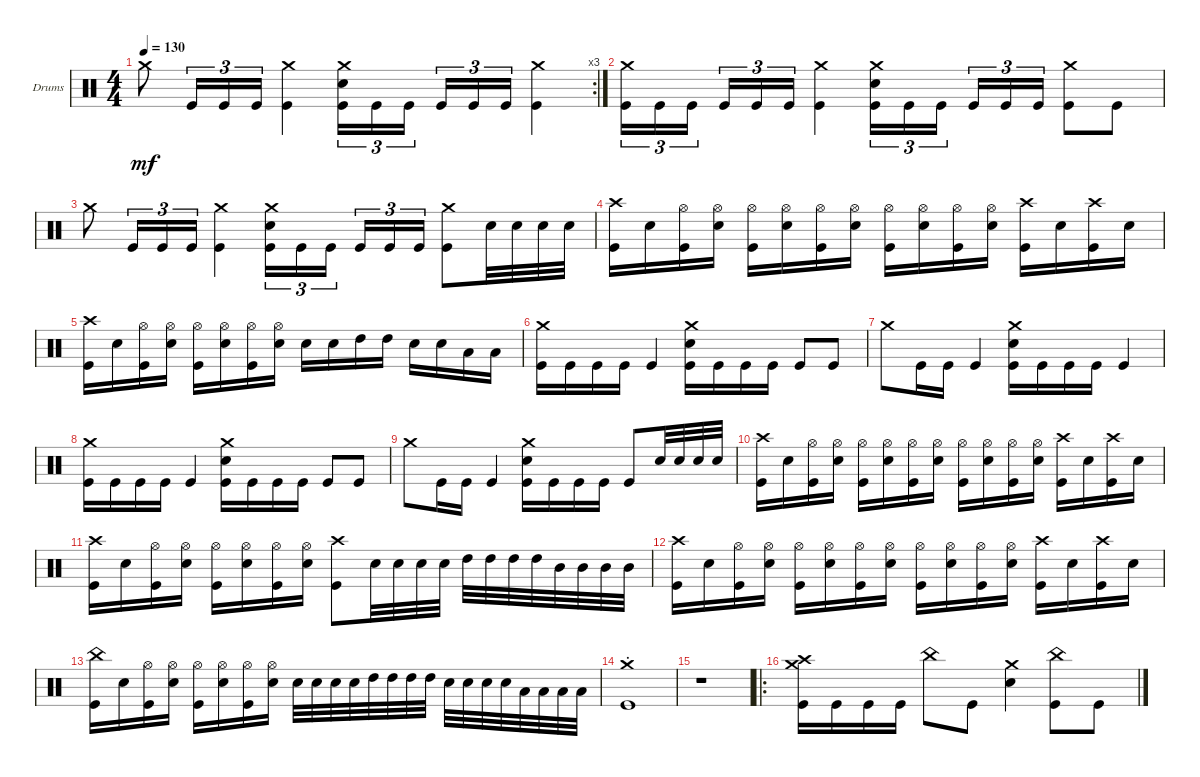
\defaultSystemsLayout 4
\bracketExtendMode groupsimilarinstruments
\firstSystemTrackNameOrientation horizontal
\otherSystemsTrackNameOrientation horizontal
\track ("Drumkit" "Drums") {instrument percussion}
\staff {score}
\articulation defaults
\rc 3
\ts (4 4)
\tempo 130
\clef neutral
\ks c "Crash medium (hit)".8{dy mf} "Kick (hit)".16{tu (3 2)} "Kick (hit)".16{tu (3 2)} "Kick (hit)".16{tu (3 2)}
("Kick (hit)" "Crash medium (hit)").4 ("Snare (hit) 2" "Crash medium (hit)" "Kick (hit)").16{tu (3 2)} "Kick (hit)".16{tu (3 2)} "Kick (hit)".16{tu (3 2)} "Kick (hit)".16{tu (3 2)} "Kick (hit)".16{tu (3 2)} "Kick (hit)".16{tu (3 2)} ("Kick (hit)" "Crash medium (hit)").4 |
("Kick (hit)" "Crash medium (hit)").16{tu (3 2)} "Kick (hit)".16{tu (3 2)} "Kick (hit)".16{tu (3 2)} "Kick (hit)".16{tu (3 2)} "Kick (hit)".16{tu (3 2)} "Kick (hit)".16{tu (3 2)} ("Crash medium (hit)" "Kick (hit)").4 ("Crash medium (hit)" "Kick (hit)" "Snare (hit) 2").16{tu (3 2)} "Kick (hit)".16{tu (3 2)} "Kick (hit)".16{tu (3 2)} "Kick (hit)".16{tu (3 2)} "Kick (hit)".16{tu (3 2)} "Kick (hit)".16{tu (3 2)} ("Kick (hit)" "Crash medium (hit)").8 "Kick (hit)".8 |
"Crash medium (hit)".8 "Kick (hit)".16{tu (3 2)} "Kick (hit)".16{tu (3 2)} "Kick (hit)".16{tu (3 2)} ("Kick (hit)" "Crash medium (hit)").4 ("Snare (hit) 2" "Crash medium (hit)" "Kick (hit)").16{tu (3 2)} "Kick (hit)".16{tu (3 2)} "Kick (hit)".16{tu (3 2)} "Kick (hit)".16{tu (3 2)} "Kick (hit)".16{tu (3 2)} "Kick (hit)".16{tu (3 2)} ("Kick (hit)" "Crash medium (hit)").8 "Snare (hit) 2".32 "Snare (hit) 2".32 "Snare (hit) 2".32 "Snare (hit) 2".32 |
("Crash high (hit)" "Kick (hit)").16 "Snare (hit) 2".16 ("Hi-Hat (open)" "Kick (hit)").16 ("Hi-Hat (open)" "Snare (hit) 2").16 ("Hi-Hat (open)" "Kick (hit)").16 ("Hi-Hat (open)" "Snare (hit) 2").16 ("Hi-Hat (open)" "Kick (hit)").16 ("Hi-Hat (open)" "Snare (hit) 2").16 ("Hi-Hat (open)" "Kick (hit)").16 ("Hi-Hat (open)" "Snare (hit) 2").16 ("Hi-Hat (open)" "Kick (hit)").16 ("Hi-Hat (open)" "Snare (hit) 2").16 ("Crash high (hit)" "Kick (hit)").16 "Snare (hit) 2".16 ("Crash high (hit)" "Kick (hit)").16 "Snare (hit) 2".16 |
("Crash high (hit)" "Kick (hit)").16 "Snare (hit) 2".16 ("Hi-Hat (open)" "Kick (hit)").16 ("Hi-Hat (open)" "Snare (hit) 2").16 ("Hi-Hat (open)" "Kick (hit)").16 ("Hi-Hat (open)" "Snare (hit) 2").16 ("Hi-Hat (open)" "Kick (hit)").16 ("Hi-Hat (open)" "Snare (hit) 2").16 "Snare (hit) 2".16 "Snare (hit) 2".16 "High Tom (hit)".16 "High Tom (hit)".16 "Snare (hit) 2".16 "Snare (hit) 2".16 "Low Tom (hit)".16 "Low Tom (hit)".16 |
("Kick (hit)" "Crash medium (hit)").16 "Kick (hit)".16 "Kick (hit)".16 "Kick (hit)".16 "Kick (hit)".4 ("Crash medium (hit)" "Snare (hit) 2" "Kick (hit)").16 "Kick (hit)".16 "Kick (hit)".16 "Kick (hit)".16 "Kick (hit)".8 "Kick (hit)".8 |
"Crash medium (hit)".8 "Kick (hit)".16 "Kick (hit)".16 "Kick (hit)".4 ("Snare (hit) 2" "Crash medium (hit)" "Kick (hit)").16 "Kick (hit)".16 "Kick (hit)".16 "Kick (hit)".16 "Kick (hit)".4 |
("Kick (hit)" "Crash medium (hit)").16 "Kick (hit)".16 "Kick (hit)".16 "Kick (hit)".16 "Kick (hit)".4 ("Crash medium (hit)" "Snare (hit) 2" "Kick (hit)").16 "Kick (hit)".16 "Kick (hit)".16 "Kick (hit)".16 "Kick (hit)".8 "Kick (hit)".8 |
"Crash medium (hit)".8 "Kick (hit)".16 "Kick (hit)".16 "Kick (hit)".4 ("Snare (hit) 2" "Crash medium (hit)" "Kick (hit)").16 "Kick (hit)".16 "Kick (hit)".16 "Kick (hit)".16 "Kick (hit)".8 "Snare (hit) 2".32 "Snare (hit) 2".32 "Snare (hit) 2".32 "Snare (hit) 2".32 |
("Crash high (hit)" "Kick (hit)").16 "Snare (hit) 2".16 ("Hi-Hat (open)" "Kick (hit)").16 ("Hi-Hat (open)" "Snare (hit) 2").16 ("Hi-Hat (open)" "Kick (hit)").16 ("Hi-Hat (open)" "Snare (hit) 2").16 ("Hi-Hat (open)" "Kick (hit)").16 ("Hi-Hat (open)" "Snare (hit) 2").16 ("Hi-Hat (open)" "Kick (hit)").16 ("Hi-Hat (open)" "Snare (hit) 2").16 ("Hi-Hat (open)" "Kick (hit)").16 ("Hi-Hat (open)" "Snare (hit) 2").16 ("Crash high (hit)" "Kick (hit)").16 "Snare (hit) 2".16 ("Crash high (hit)" "Kick (hit)").16 "Snare (hit) 2".16 |
("Crash high (hit)" "Kick (hit)").16 "Snare (hit) 2".16 ("Hi-Hat (open)" "Kick (hit)").16 ("Hi-Hat (open)" "Snare (hit) 2").16 ("Hi-Hat (open)" "Kick (hit)").16 ("Hi-Hat (open)" "Snare (hit) 2").16 ("Hi-Hat (open)" "Kick (hit)").16 ("Hi-Hat (open)" "Snare (hit) 2").16 ("Crash high (hit)" "Kick (hit)").8 "Snare (hit) 2".32 "Snare (hit) 2".32 "Snare (hit) 2".32 "Snare (hit) 2".32 "High Tom (hit)".32 "High Tom (hit)".32 "High Tom (hit)".32 "High Tom (hit)".32 "Mid Tom (hit)".32 "Mid Tom (hit)".32 "Mid Tom (hit)".32 "Mid Tom (hit)".32 |
("Crash high (hit)" "Kick (hit)").16 "Snare (hit) 2".16 ("Hi-Hat (open)" "Kick (hit)").16 ("Hi-Hat (open)" "Snare (hit) 2").16 ("Hi-Hat (open)" "Kick (hit)").16 ("Hi-Hat (open)" "Snare (hit) 2").16 ("Hi-Hat (open)" "Kick (hit)").16 ("Hi-Hat (open)" "Snare (hit) 2").16 ("Hi-Hat (open)" "Kick (hit)").16 ("Hi-Hat (open)" "Snare (hit) 2").16 ("Hi-Hat (open)" "Kick (hit)").16 ("Hi-Hat (open)" "Snare (hit) 2").16 ("Crash high (hit)" "Kick (hit)").16 "Snare (hit) 2".16 ("Crash high (hit)" "Kick (hit)").16 "Snare (hit) 2".16 |
("Kick (hit)" "China (hit)").16 "Snare (hit) 2".16 ("Hi-Hat (open)" "Kick (hit)").16 ("Hi-Hat (open)" "Snare (hit) 2").16 ("Hi-Hat (open)" "Kick (hit)").16 ("Hi-Hat (open)" "Snare (hit) 2").16 ("Hi-Hat (open)" "Kick (hit)").16 ("Hi-Hat (open)" "Snare (hit) 2").16 "Snare (hit) 2".32 "Snare (hit) 2".32 "Snare (hit) 2".32 "Snare (hit) 2".32 "High Tom (hit)".32 "High Tom (hit)".32 "High Tom (hit)".32 "High Tom (hit)".32 "Snare (hit) 2".32 "Snare (hit) 2".32 "Snare (hit) 2".32 "Snare (hit) 2".32 "Low Tom (hit)".32 "Low Tom (hit)".32 "Low Tom (hit)".32 "Low Tom (hit)".32 |
("Kick (hit)" "Crash medium (hit)"{st}).1 |
r.1 |
\ro
("Kick (hit)" "Crash medium (hit)" "Crash high (hit)").16 "Kick (hit)".16 "Kick (hit)".16 "Kick (hit)".16 "China (hit)".8 "Kick (hit)".8 ("Snare (hit) 2" "Crash medium (hit)").4 ("Kick (hit)" "China (hit)").8 "Kick (hit)".8
